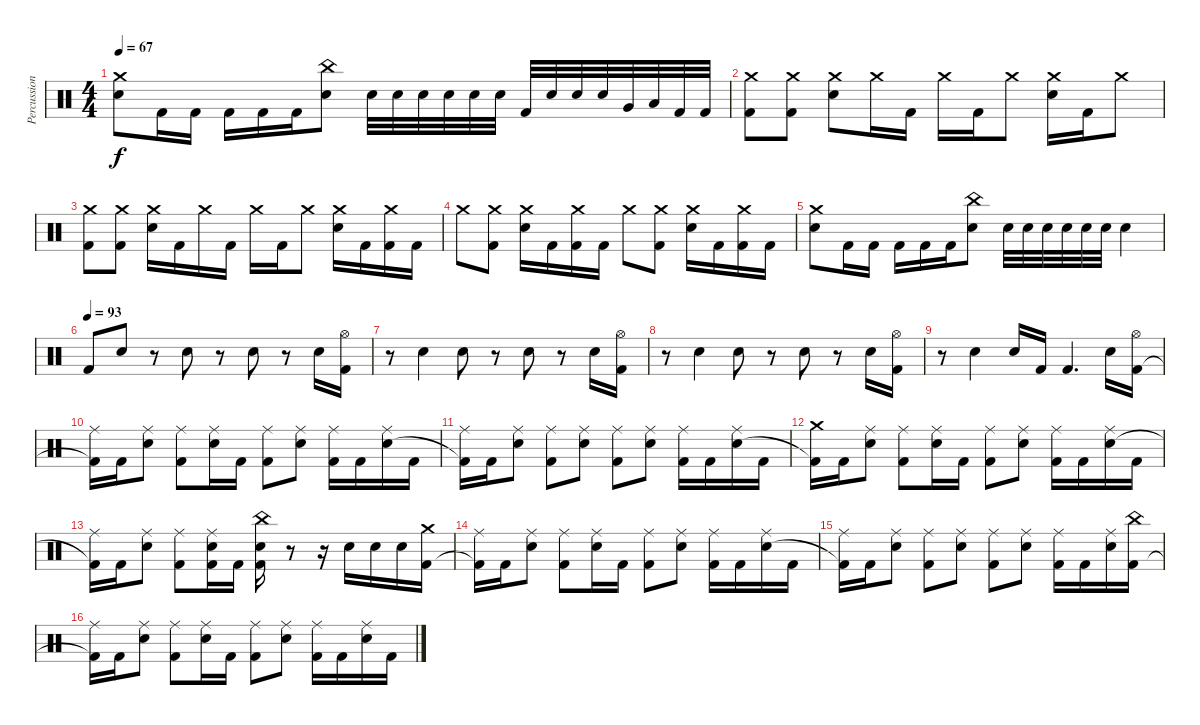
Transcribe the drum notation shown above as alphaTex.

\track ("Percussion" "Percussion") {instrument percussion}
\staff {score}
\articulation defaults
\ts (4 4)
\tempo 67
\clef neutral
\ks c
("Crash medium (hit)" "Electric Snare (hit)").8{dy f} "Kick (hit) 2".16 "Kick (hit) 2".16 "Kick (hit) 2".16 "Kick (hit) 2".16 "Kick (hit) 2".16 ("China (hit)" "Electric Snare (hit)").8 "Electric Snare (hit)".32 "Electric Snare (hit)".32 "Electric Snare (hit)".32 "Electric Snare (hit)".32 "Electric Snare (hit)".32 "Electric Snare (hit)".32 "Kick (hit) 2".32 "Electric Snare (hit)".32 "Electric Snare (hit)".32 "Electric Snare (hit)".32 "Very Low Tom (hit)".32 "Low Floor Tom (hit)".32 "Kick (hit) 2".32 "Kick (hit) 2".32 |
("Crash medium (hit)" "Kick (hit) 2").8 ("Crash medium (hit)" "Kick (hit) 2").8 ("Crash medium (hit)" "Electric Snare (hit)").8 "Crash medium (hit)".16 "Kick (hit) 2".16 "Crash medium (hit)".16 "Kick (hit) 2".16 "Crash medium (hit)".8 ("Crash medium (hit)" "Electric Snare (hit)").16 "Kick (hit) 2".16 "Crash medium (hit)".8 |
("Crash medium (hit)" "Kick (hit) 2").8 ("Crash medium (hit)" "Kick (hit) 2").8 ("Crash medium (hit)" "Electric Snare (hit)").16 "Kick (hit) 2".16 "Crash medium (hit)".16 "Kick (hit) 2".16 "Crash medium (hit)".16 "Kick (hit) 2".16 "Crash medium (hit)".8 ("Crash medium (hit)" "Electric Snare (hit)").16 "Kick (hit) 2".16 ("Crash medium (hit)" "Kick (hit) 2").16 "Kick (hit) 2".16 |
"Crash medium (hit)".8 ("Crash medium (hit)" "Kick (hit) 2").8 ("Crash medium (hit)" "Electric Snare (hit)").16 "Kick (hit) 2".16 ("Crash medium (hit)" "Kick (hit) 2").16 "Kick (hit) 2".16 "Crash medium (hit)".8 ("Crash medium (hit)" "Kick (hit) 2").8 ("Crash medium (hit)" "Electric Snare (hit)").16 "Kick (hit) 2".16 ("Crash medium (hit)" "Kick (hit) 2").16 "Kick (hit) 2".16 |
("Crash medium (hit)" "Electric Snare (hit)").8 "Kick (hit) 2".16 "Kick (hit) 2".16 "Kick (hit) 2".16 "Kick (hit) 2".16 "Kick (hit) 2".16 ("China (hit)" "Electric Snare (hit)").8 "Electric Snare (hit)".32 "Electric Snare (hit)".32 "Electric Snare (hit)".32 "Electric Snare (hit)".32 "Electric Snare (hit)".32 "Electric Snare (hit)".32 "Electric Snare (hit)".4 |
\tempo (93)
"Kick (hit) 2".8 "Electric Snare (hit)".8 r.8 "Electric Snare (hit)".8 r.8 "Electric Snare (hit)".8 r.8 "Electric Snare (hit)".16 ("Hi-Hat (open)" "Kick (hit) 2").16 |
r.8 "Electric Snare (hit)".4 "Electric Snare (hit)".8 r.8 "Electric Snare (hit)".8 r.8 "Electric Snare (hit)".16 ("Hi-Hat (open)" "Kick (hit) 2").16 |
r.8 "Electric Snare (hit)".4 "Electric Snare (hit)".8 r.8 "Electric Snare (hit)".8 r.8 "Electric Snare (hit)".16 ("Hi-Hat (open)" "Kick (hit) 2").16 |
r.8 "Electric Snare (hit)".4 "Electric Snare (hit)".16 "Kick (hit) 2".16 "Kick (hit) 2".4{d} "Electric Snare (hit)".16 ("Hi-Hat (open)" "Kick (hit) 2").16 |
("Ride (middle)" "Kick (hit) 2"{t}).16 "Kick (hit) 2".16 ("Ride (middle)" "Electric Snare (hit)").8 ("Ride (middle)" "Kick (hit) 2").8 ("Ride (middle)" "Electric Snare (hit)").16 "Kick (hit) 2".16 ("Ride (middle)" "Kick (hit) 2").8 ("Ride (middle)" "Electric Snare (hit)").8 ("Ride (middle)" "Kick (hit) 2").16 "Kick (hit) 2".16 ("Ride (middle)" "Electric Snare (hit)").16 "Kick (hit) 2".16 |
("Ride (middle)" "Kick (hit) 2"{t}).16 "Kick (hit) 2".16 ("Ride (middle)" "Electric Snare (hit)").8 ("Ride (middle)" "Kick (hit) 2").8 ("Ride (middle)" "Electric Snare (hit)").8 ("Ride (middle)" "Kick (hit) 2").8 ("Ride (middle)" "Electric Snare (hit)").8 ("Ride (middle)" "Kick (hit) 2").16 "Kick (hit) 2".16 ("Ride (middle)" "Electric Snare (hit)").16 "Kick (hit) 2".16 |
("Crash medium (hit)" "Kick (hit) 2"{t}).16 "Kick (hit) 2".16 ("Ride (middle)" "Electric Snare (hit)").8 ("Ride (middle)" "Kick (hit) 2").8 ("Ride (middle)" "Electric Snare (hit)").16 "Kick (hit) 2".16 ("Ride (middle)" "Kick (hit) 2").8 ("Ride (middle)" "Electric Snare (hit)").8 ("Ride (middle)" "Kick (hit) 2").16 "Kick (hit) 2".16 ("Ride (middle)" "Electric Snare (hit)").16 "Kick (hit) 2".16 |
("Ride (middle)" "Kick (hit) 2"{t}).16 "Kick (hit) 2".16 ("Ride (middle)" "Electric Snare (hit)").8 ("Ride (middle)" "Kick (hit) 2").8 ("Ride (middle)" "Electric Snare (hit)" "Kick (hit) 2").16 "Kick (hit) 2".16 ("China (hit)" "Electric Snare (hit)" "Kick (hit) 2").16 r.8 r.16 "Electric Snare (hit)".16 "Electric Snare (hit)".16 "Electric Snare (hit)".16 ("Crash medium (hit)" "Kick (hit) 2").16 |
("Ride (middle)" "Kick (hit) 2"{t}).16 "Kick (hit) 2".16 ("Ride (middle)" "Electric Snare (hit)").8 ("Ride (middle)" "Kick (hit) 2").8 ("Ride (middle)" "Electric Snare (hit)").16 "Kick (hit) 2".16 ("Ride (middle)" "Kick (hit) 2").8 ("Ride (middle)" "Electric Snare (hit)").8 ("Ride (middle)" "Kick (hit) 2").16 "Kick (hit) 2".16 ("Ride (middle)" "Electric Snare (hit)").16 "Kick (hit) 2".16 |
("Ride (middle)" "Kick (hit) 2"{t}).16 "Kick (hit) 2".16 ("Ride (middle)" "Electric Snare (hit)").8 ("Ride (middle)" "Kick (hit) 2").8 ("Ride (middle)" "Electric Snare (hit)").8 ("Ride (middle)" "Kick (hit) 2").8 ("Ride (middle)" "Electric Snare (hit)").8 ("Ride (middle)" "Kick (hit) 2").16 "Kick (hit) 2".16 ("Ride (middle)" "Electric Snare (hit)").16 ("China (hit)" "Kick (hit) 2").16 |
("Ride (middle)" "Kick (hit) 2"{t}).16 "Kick (hit) 2".16 ("Ride (middle)" "Electric Snare (hit)").8 ("Ride (middle)" "Kick (hit) 2").8 ("Ride (middle)" "Electric Snare (hit)").16 "Kick (hit) 2".16 ("Ride (middle)" "Kick (hit) 2").8 ("Ride (middle)" "Electric Snare (hit)").8 ("Ride (middle)" "Kick (hit) 2").16 "Kick (hit) 2".16 ("Ride (middle)" "Electric Snare (hit)").16 "Kick (hit) 2".16
